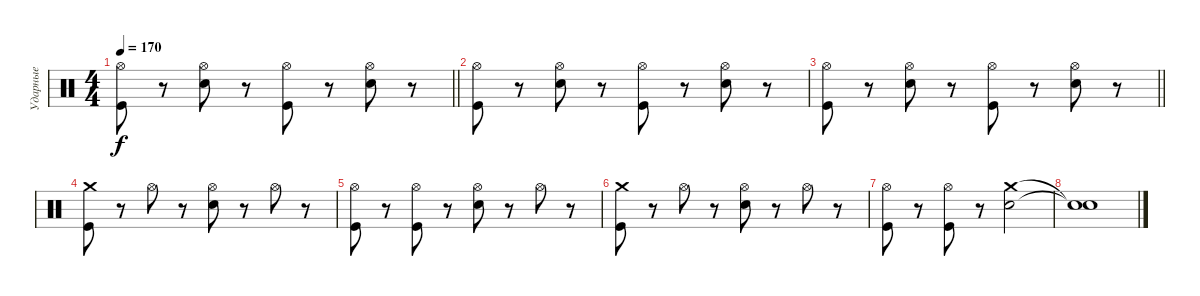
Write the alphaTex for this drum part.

\track ("Ударные" "Ударные") {instrument percussion}
\staff {score}
\articulation defaults
\ts (4 4)
\tempo 170
\clef neutral
\barLineRight lightlight
\ks c
("Hi-Hat (open)" "Kick (hit)").8{dy f} r.8 ("Hi-Hat (open)" "Electric Snare (hit)").8 r.8 ("Hi-Hat (open)" "Kick (hit)").8 r.8 ("Hi-Hat (open)" "Electric Snare (hit)").8 r.8 |
("Hi-Hat (open)" "Kick (hit)").8 r.8 ("Hi-Hat (open)" "Electric Snare (hit)").8 r.8 ("Hi-Hat (open)" "Kick (hit)").8 r.8 ("Hi-Hat (open)" "Electric Snare (hit)").8 r.8 |
\barLineRight lightlight
("Hi-Hat (open)" "Kick (hit)").8 r.8 ("Hi-Hat (open)" "Electric Snare (hit)").8 r.8 ("Hi-Hat (open)" "Kick (hit)").8 r.8 ("Hi-Hat (open)" "Electric Snare (hit)").8 r.8 |
("Crash medium (hit)" "Kick (hit)").8 r.8 "Hi-Hat (open)".8 r.8 ("Hi-Hat (open)" "Electric Snare (hit)").8 r.8 "Hi-Hat (open)".8 r.8 |
("Hi-Hat (open)" "Kick (hit)").8 r.8 ("Hi-Hat (open)" "Kick (hit)").8 r.8 ("Hi-Hat (open)" "Electric Snare (hit)").8 r.8 "Hi-Hat (open)".8 r.8 |
("Crash medium (hit)" "Kick (hit)").8 r.8 "Hi-Hat (open)".8 r.8 ("Hi-Hat (open)" "Electric Snare (hit)").8 r.8 "Hi-Hat (open)".8 r.8 |
("Hi-Hat (open)" "Kick (hit)").8 r.8 ("Hi-Hat (open)" "Kick (hit)").8 r.8 ("Crash medium (hit)" "Electric Snare (hit)").2 |
("Snare (hit)"{t} "Snare (hit)"{t}).1
